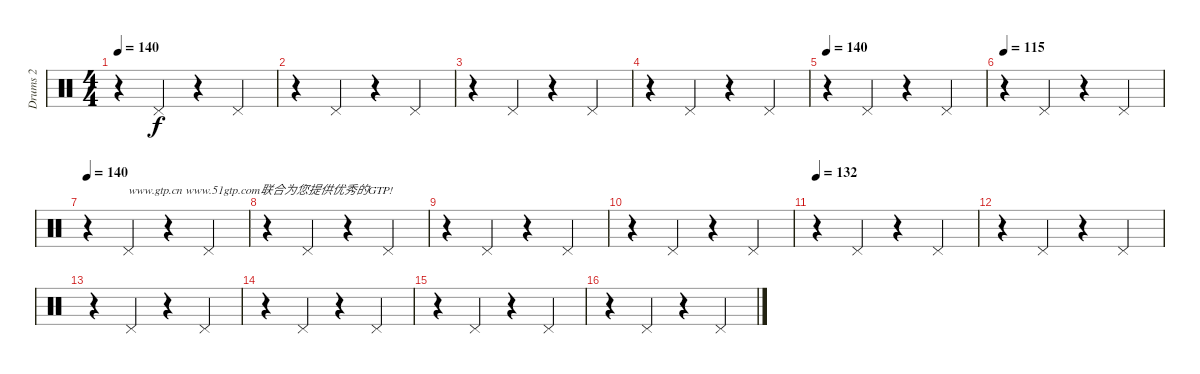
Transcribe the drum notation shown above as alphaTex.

\track ("Drums 2" "Drums 2") {instrument percussion}
\staff {score}
\articulation defaults
\ts (4 4)
\tempo 140
\clef neutral
\ks c
r.4{dy f} "Pedal Hi-Hat (hit)".4 r.4 "Pedal Hi-Hat (hit)".4 |
r.4 "Pedal Hi-Hat (hit)".4 r.4 "Pedal Hi-Hat (hit)".4 |
r.4 "Pedal Hi-Hat (hit)".4 r.4 "Pedal Hi-Hat (hit)".4 |
r.4 "Pedal Hi-Hat (hit)".4 r.4 "Pedal Hi-Hat (hit)".4 |
\tempo 140
r.4 "Pedal Hi-Hat (hit)".4 r.4 "Pedal Hi-Hat (hit)".4 |
\tempo 115
r.4 "Pedal Hi-Hat (hit)".4 r.4 "Pedal Hi-Hat (hit)".4 |
\tempo 140
r.4 "Pedal Hi-Hat (hit)".4{txt "www.gtp.cn www.51gtp.com联合为您提供优秀的GTP!"} r.4 "Pedal Hi-Hat (hit)".4 |
r.4 "Pedal Hi-Hat (hit)".4 r.4 "Pedal Hi-Hat (hit)".4 |
r.4 "Pedal Hi-Hat (hit)".4 r.4 "Pedal Hi-Hat (hit)".4 |
r.4 "Pedal Hi-Hat (hit)".4 r.4 "Pedal Hi-Hat (hit)".4 |
\tempo 132
r.4 "Pedal Hi-Hat (hit)".4 r.4 "Pedal Hi-Hat (hit)".4 |
r.4 "Pedal Hi-Hat (hit)".4 r.4 "Pedal Hi-Hat (hit)".4 |
r.4 "Pedal Hi-Hat (hit)".4 r.4 "Pedal Hi-Hat (hit)".4 |
r.4 "Pedal Hi-Hat (hit)".4 r.4 "Pedal Hi-Hat (hit)".4 |
r.4 "Pedal Hi-Hat (hit)".4 r.4 "Pedal Hi-Hat (hit)".4 |
r.4 "Pedal Hi-Hat (hit)".4 r.4 "Pedal Hi-Hat (hit)".4
